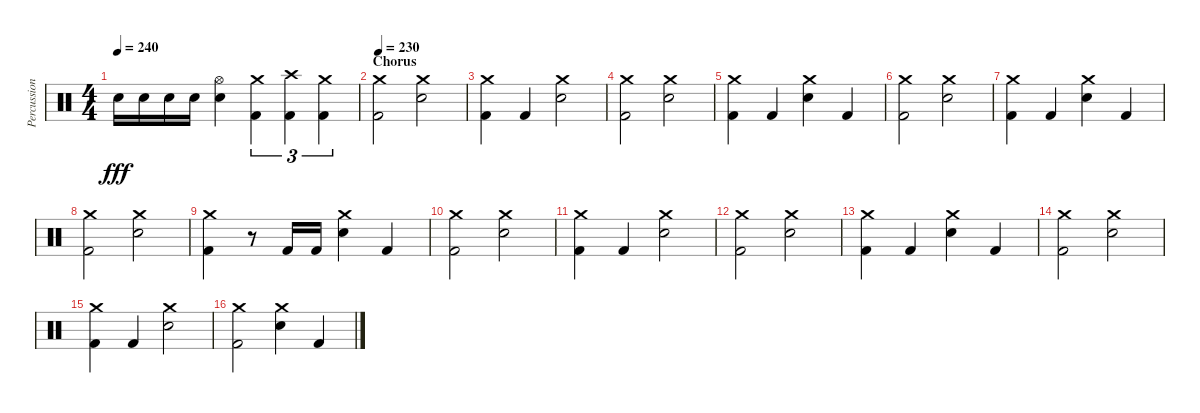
\track ("Percussion" "Percussion") {instrument percussion}
\staff {score}
\articulation defaults
\ts (4 4)
\tempo 240
\clef neutral
\ks c "Electric Snare (hit)".16{dy fff} "Electric Snare (hit)".16 "Electric Snare (hit)".16 "Electric Snare (hit)".16
("Electric Snare (hit)" "Hi-Hat (open)").4 ("Kick (hit) 2" "Crash medium (hit)").4{tu (3 2)} ("Kick (hit) 2" "Crash high (hit)").4{tu (3 2)} ("Kick (hit) 2" "Crash medium (hit)").4{tu (3 2)} |
\section ("" "Chorus")
\tempo 230
("Kick (hit) 2" "Crash medium (hit)").2 ("Electric Snare (hit)" "Crash medium (hit)").2 |
("Kick (hit) 2" "Crash medium (hit)").4 "Kick (hit) 2".4 ("Electric Snare (hit)" "Crash medium (hit)").2 |
("Kick (hit) 2" "Crash medium (hit)").2 ("Electric Snare (hit)" "Crash medium (hit)").2 |
("Kick (hit) 2" "Crash medium (hit)").4 "Kick (hit) 2".4 ("Electric Snare (hit)" "Crash medium (hit)").4 "Kick (hit) 2".4 |
("Kick (hit) 2" "Crash medium (hit)").2 ("Electric Snare (hit)" "Crash medium (hit)").2 |
("Kick (hit) 2" "Crash medium (hit)").4 "Kick (hit) 2".4 ("Electric Snare (hit)" "Crash medium (hit)").4 "Kick (hit) 2".4 |
("Kick (hit) 2" "Crash medium (hit)").2 ("Electric Snare (hit)" "Crash medium (hit)").2 |
("Kick (hit) 2" "Crash medium (hit)").4 r.8 "Kick (hit) 2".16 "Kick (hit) 2".16 ("Electric Snare (hit)" "Crash medium (hit)").4 "Kick (hit) 2".4 |
("Kick (hit) 2" "Crash medium (hit)").2 ("Electric Snare (hit)" "Crash medium (hit)").2 |
("Kick (hit) 2" "Crash medium (hit)").4 "Kick (hit) 2".4 ("Electric Snare (hit)" "Crash medium (hit)").2 |
("Kick (hit) 2" "Crash medium (hit)").2 ("Electric Snare (hit)" "Crash medium (hit)").2 |
("Kick (hit) 2" "Crash medium (hit)").4 "Kick (hit) 2".4 ("Electric Snare (hit)" "Crash medium (hit)").4 "Kick (hit) 2".4 |
("Kick (hit) 2" "Crash medium (hit)").2 ("Electric Snare (hit)" "Crash medium (hit)").2 |
("Kick (hit) 2" "Crash medium (hit)").4 "Kick (hit) 2".4 ("Electric Snare (hit)" "Crash medium (hit)").2 |
("Kick (hit) 2" "Crash medium (hit)").2 ("Electric Snare (hit)" "Crash medium (hit)").4 "Kick (hit) 2".4
